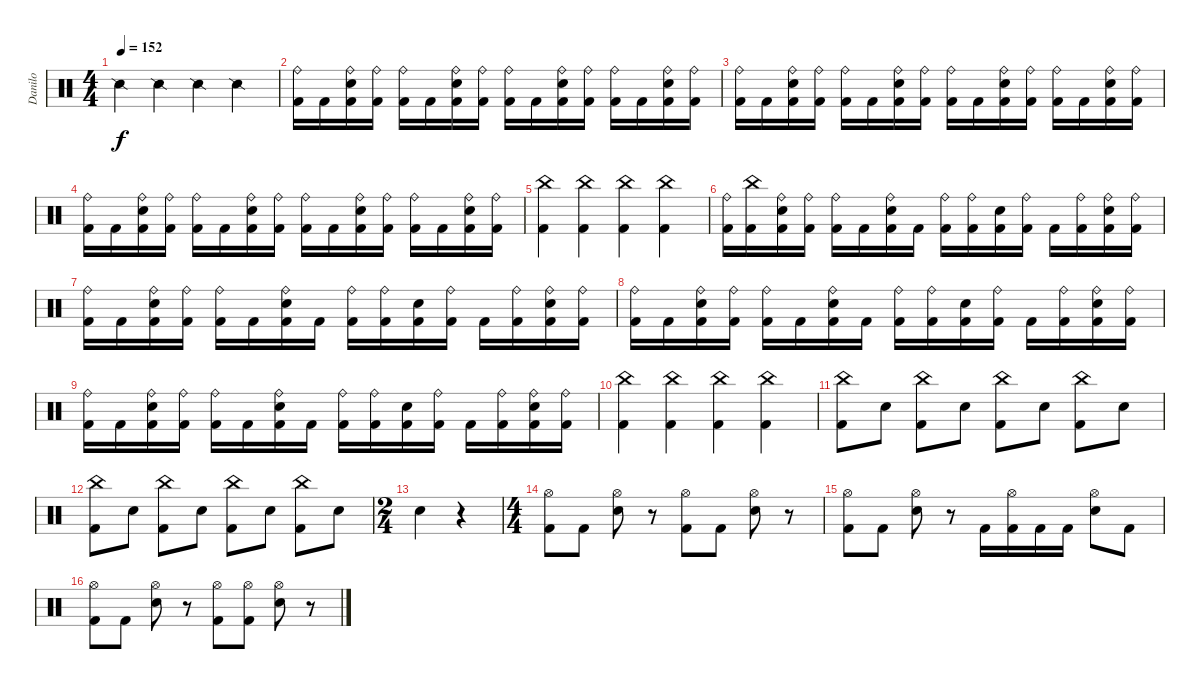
\track ("Danilo" "Danilo") {instrument percussion}
\staff {score}
\articulation defaults
\ts (4 4)
\tempo 152
\clef neutral
\ks c "Snare (side stick) 2".4{dy f} "Snare (side stick) 2".4 "Snare (side stick) 2".4 "Snare (side stick) 2".4
|
("Ride (bell)" "Kick (hit) 2").16 "Kick (hit) 2".16 ("Ride (bell)" "Snare (hit) 2" "Kick (hit) 2").16 ("Ride (bell)" "Kick (hit) 2").16 ("Ride (bell)" "Kick (hit) 2").16 "Kick (hit) 2".16 ("Ride (bell)" "Snare (hit) 2" "Kick (hit) 2").16 ("Ride (bell)" "Kick (hit) 2").16 ("Ride (bell)" "Kick (hit) 2").16 "Kick (hit) 2".16 ("Ride (bell)" "Snare (hit) 2" "Kick (hit) 2").16 ("Ride (bell)" "Kick (hit) 2").16 ("Ride (bell)" "Kick (hit) 2").16 "Kick (hit) 2".16 ("Ride (bell)" "Snare (hit) 2" "Kick (hit) 2").16 ("Ride (bell)" "Kick (hit) 2").16 |
("Ride (bell)" "Kick (hit) 2").16 "Kick (hit) 2".16 ("Ride (bell)" "Snare (hit) 2" "Kick (hit) 2").16 ("Ride (bell)" "Kick (hit) 2").16 ("Ride (bell)" "Kick (hit) 2").16 "Kick (hit) 2".16 ("Ride (bell)" "Snare (hit) 2" "Kick (hit) 2").16 ("Ride (bell)" "Kick (hit) 2").16 ("Ride (bell)" "Kick (hit) 2").16 "Kick (hit) 2".16 ("Ride (bell)" "Snare (hit) 2" "Kick (hit) 2").16 ("Ride (bell)" "Kick (hit) 2").16 ("Ride (bell)" "Kick (hit) 2").16 "Kick (hit) 2".16 ("Ride (bell)" "Snare (hit) 2" "Kick (hit) 2").16 ("Ride (bell)" "Kick (hit) 2").16 |
("Ride (bell)" "Kick (hit) 2").16 "Kick (hit) 2".16 ("Ride (bell)" "Snare (hit) 2" "Kick (hit) 2").16 ("Ride (bell)" "Kick (hit) 2").16 ("Ride (bell)" "Kick (hit) 2").16 "Kick (hit) 2".16 ("Ride (bell)" "Snare (hit) 2" "Kick (hit) 2").16 ("Ride (bell)" "Kick (hit) 2").16 ("Ride (bell)" "Kick (hit) 2").16 "Kick (hit) 2".16 ("Ride (bell)" "Snare (hit) 2" "Kick (hit) 2").16 ("Ride (bell)" "Kick (hit) 2").16 ("Ride (bell)" "Kick (hit) 2").16 "Kick (hit) 2".16 ("Ride (bell)" "Snare (hit) 2" "Kick (hit) 2").16 ("Ride (bell)" "Kick (hit) 2").16 |
("Kick (hit) 2" "China (hit)").4 ("Kick (hit) 2" "China (hit)").4 ("Kick (hit) 2" "China (hit)").4 ("Kick (hit) 2" "China (hit)").4 |
("Ride (bell)" "Kick (hit) 2").16 ("China (hit)" "Kick (hit) 2").16 ("Ride (bell)" "Snare (hit) 2" "Kick (hit) 2").16 ("Ride (bell)" "Kick (hit) 2").16 ("Ride (bell)" "Kick (hit) 2").16 "Kick (hit) 2".16 ("Ride (bell)" "Snare (hit) 2" "Kick (hit) 2").16 "Kick (hit) 2".16 ("Ride (bell)" "Kick (hit) 2").16 ("Ride (bell)" "Kick (hit) 2").16 ("Snare (hit) 2" "Kick (hit) 2").16 ("Ride (bell)" "Kick (hit) 2").16 "Kick (hit) 2".16 ("Ride (bell)" "Kick (hit) 2").16 ("Ride (bell)" "Snare (hit) 2" "Kick (hit) 2").16 ("Ride (bell)" "Kick (hit) 2").16 |
("Ride (bell)" "Kick (hit) 2").16 "Kick (hit) 2".16 ("Ride (bell)" "Snare (hit) 2" "Kick (hit) 2").16 ("Ride (bell)" "Kick (hit) 2").16 ("Ride (bell)" "Kick (hit) 2").16 "Kick (hit) 2".16 ("Ride (bell)" "Snare (hit) 2" "Kick (hit) 2").16 "Kick (hit) 2".16 ("Ride (bell)" "Kick (hit) 2").16 ("Ride (bell)" "Kick (hit) 2").16 ("Snare (hit) 2" "Kick (hit) 2").16 ("Ride (bell)" "Kick (hit) 2").16 "Kick (hit) 2".16 ("Ride (bell)" "Kick (hit) 2").16 ("Ride (bell)" "Snare (hit) 2" "Kick (hit) 2").16 ("Ride (bell)" "Kick (hit) 2").16 |
("Ride (bell)" "Kick (hit) 2").16 "Kick (hit) 2".16 ("Ride (bell)" "Snare (hit) 2" "Kick (hit) 2").16 ("Ride (bell)" "Kick (hit) 2").16 ("Ride (bell)" "Kick (hit) 2").16 "Kick (hit) 2".16 ("Ride (bell)" "Snare (hit) 2" "Kick (hit) 2").16 "Kick (hit) 2".16 ("Ride (bell)" "Kick (hit) 2").16 ("Ride (bell)" "Kick (hit) 2").16 ("Snare (hit) 2" "Kick (hit) 2").16 ("Ride (bell)" "Kick (hit) 2").16 "Kick (hit) 2".16 ("Ride (bell)" "Kick (hit) 2").16 ("Ride (bell)" "Snare (hit) 2" "Kick (hit) 2").16 ("Ride (bell)" "Kick (hit) 2").16 |
("Ride (bell)" "Kick (hit) 2").16 "Kick (hit) 2".16 ("Ride (bell)" "Snare (hit) 2" "Kick (hit) 2").16 ("Ride (bell)" "Kick (hit) 2").16 ("Ride (bell)" "Kick (hit) 2").16 "Kick (hit) 2".16 ("Ride (bell)" "Snare (hit) 2" "Kick (hit) 2").16 "Kick (hit) 2".16 ("Ride (bell)" "Kick (hit) 2").16 ("Ride (bell)" "Kick (hit) 2").16 ("Snare (hit) 2" "Kick (hit) 2").16 ("Ride (bell)" "Kick (hit) 2").16 "Kick (hit) 2".16 ("Ride (bell)" "Kick (hit) 2").16 ("Ride (bell)" "Snare (hit) 2" "Kick (hit) 2").16 ("Ride (bell)" "Kick (hit) 2").16 |
("Kick (hit) 2" "China (hit)").4 ("Kick (hit) 2" "China (hit)").4 ("Kick (hit) 2" "China (hit)").4 ("Kick (hit) 2" "China (hit)").4 |
("Kick (hit) 2" "China (hit)").8 "Snare (hit) 2".8 ("Kick (hit) 2" "China (hit)").8 "Snare (hit) 2".8 ("Kick (hit) 2" "China (hit)").8 "Snare (hit) 2".8 ("China (hit)" "Kick (hit) 2").8 "Snare (hit) 2".8 |
("Kick (hit) 2" "China (hit)").8 "Snare (hit) 2".8 ("Kick (hit) 2" "China (hit)").8 "Snare (hit) 2".8 ("Kick (hit) 2" "China (hit)").8 "Snare (hit) 2".8 ("China (hit)" "Kick (hit) 2").8 "Snare (hit) 2".8 |
\ts (2 4)
"Electric Snare (hit)".4 r.4 |
\ts (4 4)
("Hi-Hat (open)" "Kick (hit) 2").8 "Kick (hit) 2".8 ("Hi-Hat (open)" "Snare (hit) 2").8 r.8 ("Hi-Hat (open)" "Kick (hit) 2").8 "Kick (hit) 2".8 ("Hi-Hat (open)" "Snare (hit) 2").8 r.8 |
("Hi-Hat (open)" "Kick (hit) 2").8 "Kick (hit) 2".8 ("Hi-Hat (open)" "Snare (hit) 2").8 r.8 "Kick (hit) 2".16 ("Hi-Hat (open)" "Kick (hit) 2").16 "Kick (hit) 2".16 "Kick (hit) 2".16 ("Hi-Hat (open)" "Snare (hit) 2").8 "Kick (hit) 2".8 |
("Hi-Hat (open)" "Kick (hit) 2").8 "Kick (hit) 2".8 ("Hi-Hat (open)" "Snare (hit) 2").8 r.8 ("Hi-Hat (open)" "Kick (hit) 2").8 ("Hi-Hat (open)" "Kick (hit) 2").8 ("Hi-Hat (open)" "Snare (hit) 2").8 r.8
